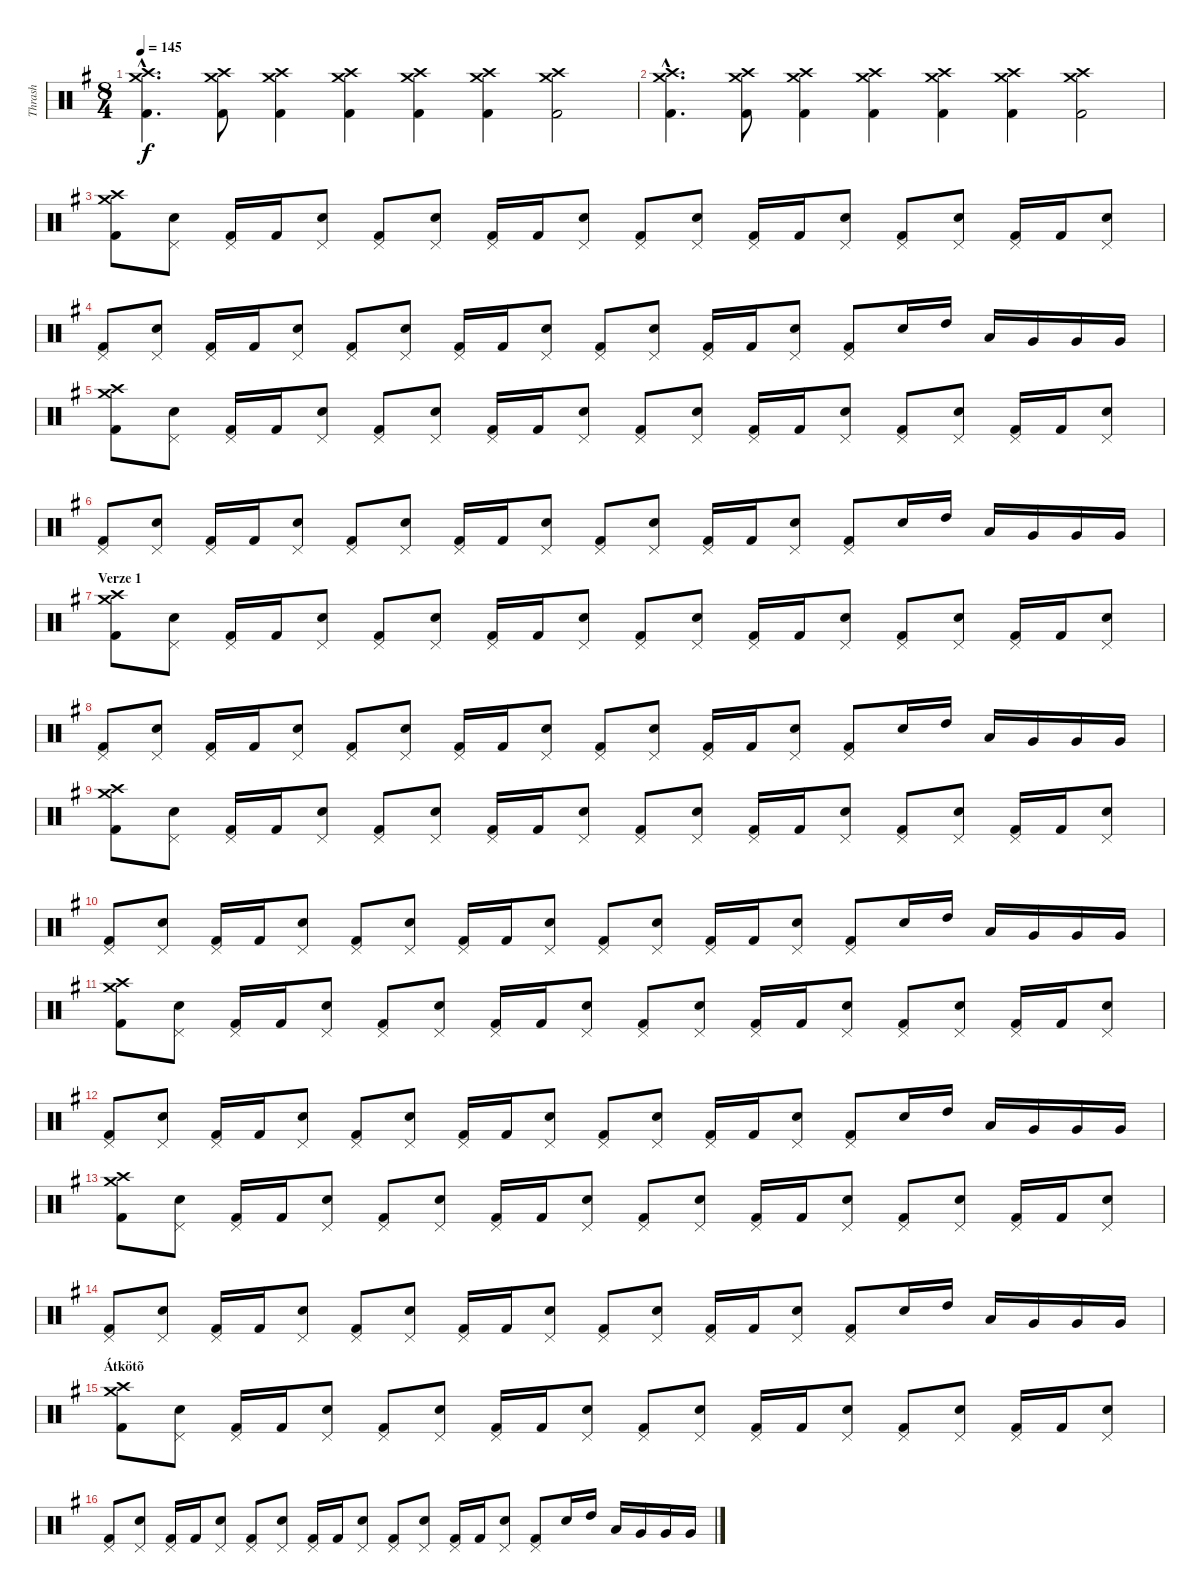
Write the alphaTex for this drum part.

\track ("Thrash" "Thrash") {instrument percussion}
\staff {score}
\articulation defaults
\ts (8 4)
\tempo 145
\clef neutral
\ks eminor
("Crash medium (hit)"{hac} "Crash high (hit)"{hac} "Kick (hit) 2"{hac}).4{d dy f} ("Crash medium (hit)" "Crash high (hit)" "Kick (hit) 2").8 ("Crash medium (hit)" "Crash high (hit)" "Kick (hit) 2").4 ("Crash medium (hit)" "Crash high (hit)" "Kick (hit) 2").4 ("Crash medium (hit)" "Crash high (hit)" "Kick (hit) 2").4 ("Crash medium (hit)" "Crash high (hit)" "Kick (hit) 2").4 ("Crash medium (hit)" "Crash high (hit)" "Kick (hit) 2").2 |
("Crash medium (hit)"{hac} "Crash high (hit)"{hac} "Kick (hit) 2"{hac}).4{d} ("Crash medium (hit)" "Crash high (hit)" "Kick (hit) 2").8 ("Crash medium (hit)" "Crash high (hit)" "Kick (hit) 2").4 ("Crash medium (hit)" "Crash high (hit)" "Kick (hit) 2").4 ("Crash medium (hit)" "Crash high (hit)" "Kick (hit) 2").4 ("Crash medium (hit)" "Crash high (hit)" "Kick (hit) 2").4 ("Crash medium (hit)" "Crash high (hit)" "Kick (hit) 2").2 |
("Crash medium (hit)" "Crash high (hit)" "Kick (hit) 2").8 ("Pedal Hi-Hat (hit)" "Snare (hit) 2").8 ("Pedal Hi-Hat (hit)" "Kick (hit) 2").16 "Kick (hit) 2".16 ("Pedal Hi-Hat (hit)" "Snare (hit) 2").8 ("Pedal Hi-Hat (hit)" "Kick (hit) 2").8 ("Pedal Hi-Hat (hit)" "Snare (hit) 2").8 ("Pedal Hi-Hat (hit)" "Kick (hit) 2").16 "Kick (hit) 2".16 ("Pedal Hi-Hat (hit)" "Snare (hit) 2").8 ("Pedal Hi-Hat (hit)" "Kick (hit) 2").8 ("Pedal Hi-Hat (hit)" "Snare (hit) 2").8 ("Pedal Hi-Hat (hit)" "Kick (hit) 2").16 "Kick (hit) 2".16 ("Pedal Hi-Hat (hit)" "Snare (hit) 2").8 ("Pedal Hi-Hat (hit)" "Kick (hit) 2").8 ("Pedal Hi-Hat (hit)" "Snare (hit) 2").8 ("Pedal Hi-Hat (hit)" "Kick (hit) 2").16 "Kick (hit) 2".16 ("Pedal Hi-Hat (hit)" "Snare (hit) 2").8 |
("Pedal Hi-Hat (hit)" "Kick (hit) 2").8 ("Pedal Hi-Hat (hit)" "Snare (hit) 2").8 ("Pedal Hi-Hat (hit)" "Kick (hit) 2").16 "Kick (hit) 2".16 ("Pedal Hi-Hat (hit)" "Snare (hit) 2").8 ("Pedal Hi-Hat (hit)" "Kick (hit) 2").8 ("Pedal Hi-Hat (hit)" "Snare (hit) 2").8 ("Pedal Hi-Hat (hit)" "Kick (hit) 2").16 "Kick (hit) 2".16 ("Pedal Hi-Hat (hit)" "Snare (hit) 2").8 ("Pedal Hi-Hat (hit)" "Kick (hit) 2").8 ("Pedal Hi-Hat (hit)" "Snare (hit) 2").8 ("Pedal Hi-Hat (hit)" "Kick (hit) 2").16 "Kick (hit) 2".16 ("Pedal Hi-Hat (hit)" "Snare (hit) 2").8 ("Pedal Hi-Hat (hit)" "Kick (hit) 2").8 "Snare (hit) 2".16 "High Tom (hit)".16 "Low Tom (hit)".16 "Very Low Tom (hit)".16 "Very Low Tom (hit)".16 "Very Low Tom (hit)".16 |
("Crash medium (hit)" "Crash high (hit)" "Kick (hit) 2").8 ("Pedal Hi-Hat (hit)" "Snare (hit) 2").8 ("Pedal Hi-Hat (hit)" "Kick (hit) 2").16 "Kick (hit) 2".16 ("Pedal Hi-Hat (hit)" "Snare (hit) 2").8 ("Pedal Hi-Hat (hit)" "Kick (hit) 2").8 ("Pedal Hi-Hat (hit)" "Snare (hit) 2").8 ("Pedal Hi-Hat (hit)" "Kick (hit) 2").16 "Kick (hit) 2".16 ("Pedal Hi-Hat (hit)" "Snare (hit) 2").8 ("Pedal Hi-Hat (hit)" "Kick (hit) 2").8 ("Pedal Hi-Hat (hit)" "Snare (hit) 2").8 ("Pedal Hi-Hat (hit)" "Kick (hit) 2").16 "Kick (hit) 2".16 ("Pedal Hi-Hat (hit)" "Snare (hit) 2").8 ("Pedal Hi-Hat (hit)" "Kick (hit) 2").8 ("Pedal Hi-Hat (hit)" "Snare (hit) 2").8 ("Pedal Hi-Hat (hit)" "Kick (hit) 2").16 "Kick (hit) 2".16 ("Pedal Hi-Hat (hit)" "Snare (hit) 2").8 |
("Pedal Hi-Hat (hit)" "Kick (hit) 2").8 ("Pedal Hi-Hat (hit)" "Snare (hit) 2").8 ("Pedal Hi-Hat (hit)" "Kick (hit) 2").16 "Kick (hit) 2".16 ("Pedal Hi-Hat (hit)" "Snare (hit) 2").8 ("Pedal Hi-Hat (hit)" "Kick (hit) 2").8 ("Pedal Hi-Hat (hit)" "Snare (hit) 2").8 ("Pedal Hi-Hat (hit)" "Kick (hit) 2").16 "Kick (hit) 2".16 ("Pedal Hi-Hat (hit)" "Snare (hit) 2").8 ("Pedal Hi-Hat (hit)" "Kick (hit) 2").8 ("Pedal Hi-Hat (hit)" "Snare (hit) 2").8 ("Pedal Hi-Hat (hit)" "Kick (hit) 2").16 "Kick (hit) 2".16 ("Pedal Hi-Hat (hit)" "Snare (hit) 2").8 ("Pedal Hi-Hat (hit)" "Kick (hit) 2").8 "Snare (hit) 2".16 "High Tom (hit)".16 "Low Tom (hit)".16 "Very Low Tom (hit)".16 "Very Low Tom (hit)".16 "Very Low Tom (hit)".16 |
\section ("" "Verze 1")
("Crash medium (hit)" "Crash high (hit)" "Kick (hit) 2").8 ("Pedal Hi-Hat (hit)" "Snare (hit) 2").8 ("Pedal Hi-Hat (hit)" "Kick (hit) 2").16 "Kick (hit) 2".16 ("Pedal Hi-Hat (hit)" "Snare (hit) 2").8 ("Pedal Hi-Hat (hit)" "Kick (hit) 2").8 ("Pedal Hi-Hat (hit)" "Snare (hit) 2").8 ("Pedal Hi-Hat (hit)" "Kick (hit) 2").16 "Kick (hit) 2".16 ("Pedal Hi-Hat (hit)" "Snare (hit) 2").8 ("Pedal Hi-Hat (hit)" "Kick (hit) 2").8 ("Pedal Hi-Hat (hit)" "Snare (hit) 2").8 ("Pedal Hi-Hat (hit)" "Kick (hit) 2").16 "Kick (hit) 2".16 ("Pedal Hi-Hat (hit)" "Snare (hit) 2").8 ("Pedal Hi-Hat (hit)" "Kick (hit) 2").8 ("Pedal Hi-Hat (hit)" "Snare (hit) 2").8 ("Pedal Hi-Hat (hit)" "Kick (hit) 2").16 "Kick (hit) 2".16 ("Pedal Hi-Hat (hit)" "Snare (hit) 2").8 |
("Pedal Hi-Hat (hit)" "Kick (hit) 2").8 ("Pedal Hi-Hat (hit)" "Snare (hit) 2").8 ("Pedal Hi-Hat (hit)" "Kick (hit) 2").16 "Kick (hit) 2".16 ("Pedal Hi-Hat (hit)" "Snare (hit) 2").8 ("Pedal Hi-Hat (hit)" "Kick (hit) 2").8 ("Pedal Hi-Hat (hit)" "Snare (hit) 2").8 ("Pedal Hi-Hat (hit)" "Kick (hit) 2").16 "Kick (hit) 2".16 ("Pedal Hi-Hat (hit)" "Snare (hit) 2").8 ("Pedal Hi-Hat (hit)" "Kick (hit) 2").8 ("Pedal Hi-Hat (hit)" "Snare (hit) 2").8 ("Pedal Hi-Hat (hit)" "Kick (hit) 2").16 "Kick (hit) 2".16 ("Pedal Hi-Hat (hit)" "Snare (hit) 2").8 ("Pedal Hi-Hat (hit)" "Kick (hit) 2").8 "Snare (hit) 2".16 "High Tom (hit)".16 "Low Tom (hit)".16 "Very Low Tom (hit)".16 "Very Low Tom (hit)".16 "Very Low Tom (hit)".16 |
("Crash medium (hit)" "Crash high (hit)" "Kick (hit) 2").8 ("Pedal Hi-Hat (hit)" "Snare (hit) 2").8 ("Pedal Hi-Hat (hit)" "Kick (hit) 2").16 "Kick (hit) 2".16 ("Pedal Hi-Hat (hit)" "Snare (hit) 2").8 ("Pedal Hi-Hat (hit)" "Kick (hit) 2").8 ("Pedal Hi-Hat (hit)" "Snare (hit) 2").8 ("Pedal Hi-Hat (hit)" "Kick (hit) 2").16 "Kick (hit) 2".16 ("Pedal Hi-Hat (hit)" "Snare (hit) 2").8 ("Pedal Hi-Hat (hit)" "Kick (hit) 2").8 ("Pedal Hi-Hat (hit)" "Snare (hit) 2").8 ("Pedal Hi-Hat (hit)" "Kick (hit) 2").16 "Kick (hit) 2".16 ("Pedal Hi-Hat (hit)" "Snare (hit) 2").8 ("Pedal Hi-Hat (hit)" "Kick (hit) 2").8 ("Pedal Hi-Hat (hit)" "Snare (hit) 2").8 ("Pedal Hi-Hat (hit)" "Kick (hit) 2").16 "Kick (hit) 2".16 ("Pedal Hi-Hat (hit)" "Snare (hit) 2").8 |
("Pedal Hi-Hat (hit)" "Kick (hit) 2").8 ("Pedal Hi-Hat (hit)" "Snare (hit) 2").8 ("Pedal Hi-Hat (hit)" "Kick (hit) 2").16 "Kick (hit) 2".16 ("Pedal Hi-Hat (hit)" "Snare (hit) 2").8 ("Pedal Hi-Hat (hit)" "Kick (hit) 2").8 ("Pedal Hi-Hat (hit)" "Snare (hit) 2").8 ("Pedal Hi-Hat (hit)" "Kick (hit) 2").16 "Kick (hit) 2".16 ("Pedal Hi-Hat (hit)" "Snare (hit) 2").8 ("Pedal Hi-Hat (hit)" "Kick (hit) 2").8 ("Pedal Hi-Hat (hit)" "Snare (hit) 2").8 ("Pedal Hi-Hat (hit)" "Kick (hit) 2").16 "Kick (hit) 2".16 ("Pedal Hi-Hat (hit)" "Snare (hit) 2").8 ("Pedal Hi-Hat (hit)" "Kick (hit) 2").8 "Snare (hit) 2".16 "High Tom (hit)".16 "Low Tom (hit)".16 "Very Low Tom (hit)".16 "Very Low Tom (hit)".16 "Very Low Tom (hit)".16 |
("Crash medium (hit)" "Crash high (hit)" "Kick (hit) 2").8 ("Pedal Hi-Hat (hit)" "Snare (hit) 2").8 ("Pedal Hi-Hat (hit)" "Kick (hit) 2").16 "Kick (hit) 2".16 ("Pedal Hi-Hat (hit)" "Snare (hit) 2").8 ("Pedal Hi-Hat (hit)" "Kick (hit) 2").8 ("Pedal Hi-Hat (hit)" "Snare (hit) 2").8 ("Pedal Hi-Hat (hit)" "Kick (hit) 2").16 "Kick (hit) 2".16 ("Pedal Hi-Hat (hit)" "Snare (hit) 2").8 ("Pedal Hi-Hat (hit)" "Kick (hit) 2").8 ("Pedal Hi-Hat (hit)" "Snare (hit) 2").8 ("Pedal Hi-Hat (hit)" "Kick (hit) 2").16 "Kick (hit) 2".16 ("Pedal Hi-Hat (hit)" "Snare (hit) 2").8 ("Pedal Hi-Hat (hit)" "Kick (hit) 2").8 ("Pedal Hi-Hat (hit)" "Snare (hit) 2").8 ("Pedal Hi-Hat (hit)" "Kick (hit) 2").16 "Kick (hit) 2".16 ("Pedal Hi-Hat (hit)" "Snare (hit) 2").8 |
("Pedal Hi-Hat (hit)" "Kick (hit) 2").8 ("Pedal Hi-Hat (hit)" "Snare (hit) 2").8 ("Pedal Hi-Hat (hit)" "Kick (hit) 2").16 "Kick (hit) 2".16 ("Pedal Hi-Hat (hit)" "Snare (hit) 2").8 ("Pedal Hi-Hat (hit)" "Kick (hit) 2").8 ("Pedal Hi-Hat (hit)" "Snare (hit) 2").8 ("Pedal Hi-Hat (hit)" "Kick (hit) 2").16 "Kick (hit) 2".16 ("Pedal Hi-Hat (hit)" "Snare (hit) 2").8 ("Pedal Hi-Hat (hit)" "Kick (hit) 2").8 ("Pedal Hi-Hat (hit)" "Snare (hit) 2").8 ("Pedal Hi-Hat (hit)" "Kick (hit) 2").16 "Kick (hit) 2".16 ("Pedal Hi-Hat (hit)" "Snare (hit) 2").8 ("Pedal Hi-Hat (hit)" "Kick (hit) 2").8 "Snare (hit) 2".16 "High Tom (hit)".16 "Low Tom (hit)".16 "Very Low Tom (hit)".16 "Very Low Tom (hit)".16 "Very Low Tom (hit)".16 |
("Crash medium (hit)" "Crash high (hit)" "Kick (hit) 2").8 ("Pedal Hi-Hat (hit)" "Snare (hit) 2").8 ("Pedal Hi-Hat (hit)" "Kick (hit) 2").16 "Kick (hit) 2".16 ("Pedal Hi-Hat (hit)" "Snare (hit) 2").8 ("Pedal Hi-Hat (hit)" "Kick (hit) 2").8 ("Pedal Hi-Hat (hit)" "Snare (hit) 2").8 ("Pedal Hi-Hat (hit)" "Kick (hit) 2").16 "Kick (hit) 2".16 ("Pedal Hi-Hat (hit)" "Snare (hit) 2").8 ("Pedal Hi-Hat (hit)" "Kick (hit) 2").8 ("Pedal Hi-Hat (hit)" "Snare (hit) 2").8 ("Pedal Hi-Hat (hit)" "Kick (hit) 2").16 "Kick (hit) 2".16 ("Pedal Hi-Hat (hit)" "Snare (hit) 2").8 ("Pedal Hi-Hat (hit)" "Kick (hit) 2").8 ("Pedal Hi-Hat (hit)" "Snare (hit) 2").8 ("Pedal Hi-Hat (hit)" "Kick (hit) 2").16 "Kick (hit) 2".16 ("Pedal Hi-Hat (hit)" "Snare (hit) 2").8 |
("Pedal Hi-Hat (hit)" "Kick (hit) 2").8 ("Pedal Hi-Hat (hit)" "Snare (hit) 2").8 ("Pedal Hi-Hat (hit)" "Kick (hit) 2").16 "Kick (hit) 2".16 ("Pedal Hi-Hat (hit)" "Snare (hit) 2").8 ("Pedal Hi-Hat (hit)" "Kick (hit) 2").8 ("Pedal Hi-Hat (hit)" "Snare (hit) 2").8 ("Pedal Hi-Hat (hit)" "Kick (hit) 2").16 "Kick (hit) 2".16 ("Pedal Hi-Hat (hit)" "Snare (hit) 2").8 ("Pedal Hi-Hat (hit)" "Kick (hit) 2").8 ("Pedal Hi-Hat (hit)" "Snare (hit) 2").8 ("Pedal Hi-Hat (hit)" "Kick (hit) 2").16 "Kick (hit) 2".16 ("Pedal Hi-Hat (hit)" "Snare (hit) 2").8 ("Pedal Hi-Hat (hit)" "Kick (hit) 2").8 "Snare (hit) 2".16 "High Tom (hit)".16 "Low Tom (hit)".16 "Very Low Tom (hit)".16 "Very Low Tom (hit)".16 "Very Low Tom (hit)".16 |
\section ("" "Átkötõ")
("Crash medium (hit)" "Crash high (hit)" "Kick (hit) 2").8 ("Pedal Hi-Hat (hit)" "Snare (hit) 2").8 ("Pedal Hi-Hat (hit)" "Kick (hit) 2").16 "Kick (hit) 2".16 ("Pedal Hi-Hat (hit)" "Snare (hit) 2").8 ("Pedal Hi-Hat (hit)" "Kick (hit) 2").8 ("Pedal Hi-Hat (hit)" "Snare (hit) 2").8 ("Pedal Hi-Hat (hit)" "Kick (hit) 2").16 "Kick (hit) 2".16 ("Pedal Hi-Hat (hit)" "Snare (hit) 2").8 ("Pedal Hi-Hat (hit)" "Kick (hit) 2").8 ("Pedal Hi-Hat (hit)" "Snare (hit) 2").8 ("Pedal Hi-Hat (hit)" "Kick (hit) 2").16 "Kick (hit) 2".16 ("Pedal Hi-Hat (hit)" "Snare (hit) 2").8 ("Pedal Hi-Hat (hit)" "Kick (hit) 2").8 ("Pedal Hi-Hat (hit)" "Snare (hit) 2").8 ("Pedal Hi-Hat (hit)" "Kick (hit) 2").16 "Kick (hit) 2".16 ("Pedal Hi-Hat (hit)" "Snare (hit) 2").8 |
("Pedal Hi-Hat (hit)" "Kick (hit) 2").8 ("Pedal Hi-Hat (hit)" "Snare (hit) 2").8 ("Pedal Hi-Hat (hit)" "Kick (hit) 2").16 "Kick (hit) 2".16 ("Pedal Hi-Hat (hit)" "Snare (hit) 2").8 ("Pedal Hi-Hat (hit)" "Kick (hit) 2").8 ("Pedal Hi-Hat (hit)" "Snare (hit) 2").8 ("Pedal Hi-Hat (hit)" "Kick (hit) 2").16 "Kick (hit) 2".16 ("Pedal Hi-Hat (hit)" "Snare (hit) 2").8 ("Pedal Hi-Hat (hit)" "Kick (hit) 2").8 ("Pedal Hi-Hat (hit)" "Snare (hit) 2").8 ("Pedal Hi-Hat (hit)" "Kick (hit) 2").16 "Kick (hit) 2".16 ("Pedal Hi-Hat (hit)" "Snare (hit) 2").8 ("Pedal Hi-Hat (hit)" "Kick (hit) 2").8 "Snare (hit) 2".16 "High Tom (hit)".16 "Low Tom (hit)".16 "Very Low Tom (hit)".16 "Very Low Tom (hit)".16 "Very Low Tom (hit)".16
